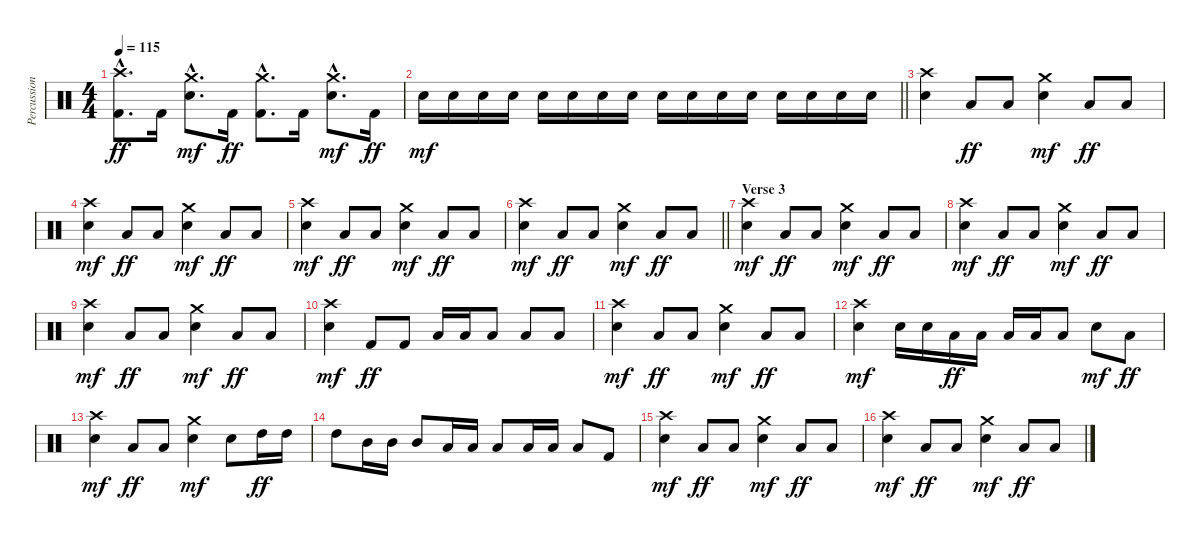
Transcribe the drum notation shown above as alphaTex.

\track ("Percussion" "Percussion") {instrument percussion}
\staff {score}
\articulation defaults
\ts (4 4)
\tempo 115
\clef neutral
\ks c
("Crash high (hit)"{hac} "Kick (hit) 2"{hac}).8{d dy ff} "Kick (hit) 2".16 ("Crash medium (hit)"{hac} "Snare (hit) 2"{hac}).8{d dy mf} "Kick (hit) 2".16{dy ff} ("Crash medium (hit)"{hac} "Kick (hit) 2"{hac}).8{d} "Kick (hit) 2".16 ("Crash medium (hit)"{hac} "Snare (hit) 2"{hac}).8{d dy mf} "Kick (hit) 2".16{dy ff} |
\barLineRight lightlight "Snare (hit) 2".16{dy mf} "Snare (hit) 2".16 "Snare (hit) 2".16 "Snare (hit) 2".16 "Snare (hit) 2".16 "Snare (hit) 2".16 "Snare (hit) 2".16 "Snare (hit) 2".16 "Snare (hit) 2".16 "Snare (hit) 2".16 "Snare (hit) 2".16 "Snare (hit) 2".16 "Snare (hit) 2".16 "Snare (hit) 2".16 "Snare (hit) 2".16 "Snare (hit) 2".16
|
("Crash high (hit)" "Snare (hit) 2").4 "Low Floor Tom (hit)".8{dy ff} "Low Floor Tom (hit)".8 ("Crash medium (hit)" "Snare (hit) 2").4{dy mf} "Low Floor Tom (hit)".8{dy ff} "Low Floor Tom (hit)".8 |
("Crash high (hit)" "Snare (hit) 2").4{dy mf} "Low Floor Tom (hit)".8{dy ff} "Low Floor Tom (hit)".8 ("Crash medium (hit)" "Snare (hit) 2").4{dy mf} "Low Floor Tom (hit)".8{dy ff} "Low Floor Tom (hit)".8 |
("Crash high (hit)" "Snare (hit) 2").4{dy mf} "Low Floor Tom (hit)".8{dy ff} "Low Floor Tom (hit)".8 ("Crash medium (hit)" "Snare (hit) 2").4{dy mf} "Low Floor Tom (hit)".8{dy ff} "Low Floor Tom (hit)".8 |
\barLineRight lightlight
("Crash high (hit)" "Snare (hit) 2").4{dy mf} "Low Floor Tom (hit)".8{dy ff} "Low Floor Tom (hit)".8 ("Crash medium (hit)" "Snare (hit) 2").4{dy mf} "Low Floor Tom (hit)".8{dy ff} "Low Floor Tom (hit)".8 |
\section ("" "Verse 3")
("Crash high (hit)" "Snare (hit) 2").4{dy mf} "Low Floor Tom (hit)".8{dy ff} "Low Floor Tom (hit)".8 ("Crash medium (hit)" "Snare (hit) 2").4{dy mf} "Low Floor Tom (hit)".8{dy ff} "Low Floor Tom (hit)".8 |
("Crash high (hit)" "Snare (hit) 2").4{dy mf} "Low Floor Tom (hit)".8{dy ff} "Low Floor Tom (hit)".8 ("Crash medium (hit)" "Snare (hit) 2").4{dy mf} "Low Floor Tom (hit)".8{dy ff} "Low Floor Tom (hit)".8 |
("Crash high (hit)" "Snare (hit) 2").4{dy mf} "Low Floor Tom (hit)".8{dy ff} "Low Floor Tom (hit)".8 ("Crash medium (hit)" "Snare (hit) 2").4{dy mf} "Low Floor Tom (hit)".8{dy ff} "Low Floor Tom (hit)".8 |
("Crash high (hit)" "Snare (hit) 2").4{dy mf} "Kick (hit) 2".8{dy ff} "Kick (hit) 2".8 "Low Tom (hit)".16 "Low Tom (hit)".16 "Low Tom (hit)".8 "Low Floor Tom (hit)".8 "Low Floor Tom (hit)".8 |
("Crash high (hit)" "Snare (hit) 2").4{dy mf} "Low Floor Tom (hit)".8{dy ff} "Low Floor Tom (hit)".8 ("Crash medium (hit)" "Snare (hit) 2").4{dy mf} "Low Floor Tom (hit)".8{dy ff} "Low Floor Tom (hit)".8 |
("Crash high (hit)" "Snare (hit) 2").4{dy mf} "Snare (hit) 2".16 "Snare (hit) 2".16 "Low Tom (hit)".16{dy ff} "Low Tom (hit)".16 "Low Floor Tom (hit)".16 "Low Tom (hit)".16 "Low Tom (hit)".8 "Snare (hit) 2".8{dy mf} "Low Floor Tom (hit)".8{dy ff} |
("Crash high (hit)" "Snare (hit) 2").4{dy mf} "Low Floor Tom (hit)".8{dy ff} "Low Floor Tom (hit)".8 ("Crash medium (hit)" "Snare (hit) 2").4{dy mf} "Snare (hit) 2".8 "High Tom (hit)".16{dy ff} "High Tom (hit)".16 |
"High Tom (hit)".8 "Mid Tom (hit)".16 "Mid Tom (hit)".16 "Mid Tom (hit)".8 "Low Tom (hit)".16 "Low Tom (hit)".16 "Low Tom (hit)".8 "Low Floor Tom (hit)".16 "Low Floor Tom (hit)".16 "Low Floor Tom (hit)".8 "Kick (hit) 2".8 |
("Crash high (hit)" "Snare (hit) 2").4{dy mf} "Low Floor Tom (hit)".8{dy ff} "Low Floor Tom (hit)".8 ("Crash medium (hit)" "Snare (hit) 2").4{dy mf} "Low Floor Tom (hit)".8{dy ff} "Low Floor Tom (hit)".8 |
("Crash high (hit)" "Snare (hit) 2").4{dy mf} "Low Floor Tom (hit)".8{dy ff} "Low Floor Tom (hit)".8 ("Crash medium (hit)" "Snare (hit) 2").4{dy mf} "Low Floor Tom (hit)".8{dy ff} "Low Floor Tom (hit)".8
